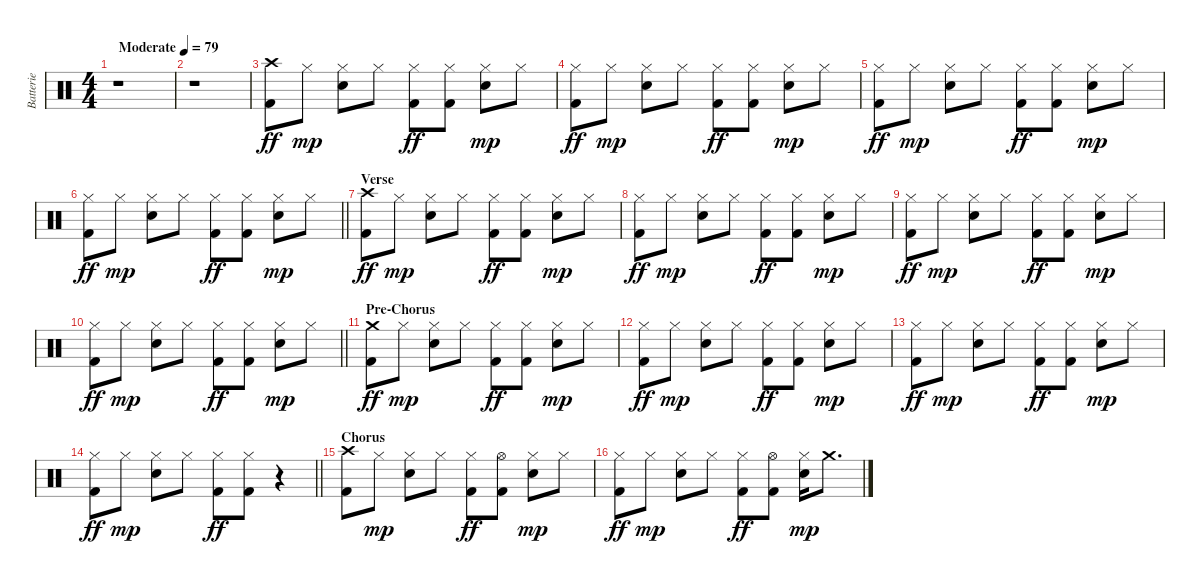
\track ("Batterie" "Batterie") {instrument percussion}
\staff {score}
\articulation defaults
\ts (4 4)
\tempo (79 "Moderate")
\clef neutral
\ks c
r.1{dy ff} |
r.1 |
("Crash high (hit)" "Kick (hit) 2").8 "Hi-Hat (closed)".8{dy mp} ("Hi-Hat (closed)" "Electric Snare (hit)").8 "Hi-Hat (closed)".8 ("Hi-Hat (closed)" "Kick (hit) 2").8{dy ff} ("Hi-Hat (closed)" "Kick (hit) 2").8 ("Hi-Hat (closed)" "Electric Snare (hit)").8{dy mp} "Hi-Hat (closed)".8 |
("Hi-Hat (closed)" "Kick (hit) 2").8{dy ff} "Hi-Hat (closed)".8{dy mp} ("Hi-Hat (closed)" "Electric Snare (hit)").8 "Hi-Hat (closed)".8 ("Hi-Hat (closed)" "Kick (hit) 2").8{dy ff} ("Hi-Hat (closed)" "Kick (hit) 2").8 ("Hi-Hat (closed)" "Electric Snare (hit)").8{dy mp} "Hi-Hat (closed)".8 |
("Hi-Hat (closed)" "Kick (hit) 2").8{dy ff} "Hi-Hat (closed)".8{dy mp} ("Hi-Hat (closed)" "Electric Snare (hit)").8 "Hi-Hat (closed)".8 ("Hi-Hat (closed)" "Kick (hit) 2").8{dy ff} ("Hi-Hat (closed)" "Kick (hit) 2").8 ("Hi-Hat (closed)" "Electric Snare (hit)").8{dy mp} "Hi-Hat (closed)".8 |
\barLineRight lightlight
("Hi-Hat (closed)" "Kick (hit) 2").8{dy ff} "Hi-Hat (closed)".8{dy mp} ("Hi-Hat (closed)" "Electric Snare (hit)").8 "Hi-Hat (closed)".8 ("Hi-Hat (closed)" "Kick (hit) 2").8{dy ff} ("Hi-Hat (closed)" "Kick (hit) 2").8 ("Hi-Hat (closed)" "Electric Snare (hit)").8{dy mp} "Hi-Hat (closed)".8 |
\section ("" "Verse")
("Crash high (hit)" "Kick (hit) 2").8{dy ff} "Hi-Hat (closed)".8{dy mp} ("Hi-Hat (closed)" "Electric Snare (hit)").8 "Hi-Hat (closed)".8 ("Hi-Hat (closed)" "Kick (hit) 2").8{dy ff} ("Hi-Hat (closed)" "Kick (hit) 2").8 ("Hi-Hat (closed)" "Electric Snare (hit)").8{dy mp} "Hi-Hat (closed)".8 |
("Hi-Hat (closed)" "Kick (hit) 2").8{dy ff} "Hi-Hat (closed)".8{dy mp} ("Hi-Hat (closed)" "Electric Snare (hit)").8 "Hi-Hat (closed)".8 ("Hi-Hat (closed)" "Kick (hit) 2").8{dy ff} ("Hi-Hat (closed)" "Kick (hit) 2").8 ("Hi-Hat (closed)" "Electric Snare (hit)").8{dy mp} "Hi-Hat (closed)".8 |
("Hi-Hat (closed)" "Kick (hit) 2").8{dy ff} "Hi-Hat (closed)".8{dy mp} ("Hi-Hat (closed)" "Electric Snare (hit)").8 "Hi-Hat (closed)".8 ("Hi-Hat (closed)" "Kick (hit) 2").8{dy ff} ("Hi-Hat (closed)" "Kick (hit) 2").8 ("Hi-Hat (closed)" "Electric Snare (hit)").8{dy mp} "Hi-Hat (closed)".8 |
\barLineRight lightlight
("Hi-Hat (closed)" "Kick (hit) 2").8{dy ff} "Hi-Hat (closed)".8{dy mp} ("Hi-Hat (closed)" "Electric Snare (hit)").8 "Hi-Hat (closed)".8 ("Hi-Hat (closed)" "Kick (hit) 2").8{dy ff} ("Hi-Hat (closed)" "Kick (hit) 2").8 ("Hi-Hat (closed)" "Electric Snare (hit)").8{dy mp} "Hi-Hat (closed)".8 |
\section ("" "Pre-Chorus")
("Crash medium (hit)" "Kick (hit) 2").8{dy ff} "Hi-Hat (closed)".8{dy mp} ("Hi-Hat (closed)" "Electric Snare (hit)").8 "Hi-Hat (closed)".8 ("Hi-Hat (closed)" "Kick (hit) 2").8{dy ff} ("Hi-Hat (closed)" "Kick (hit) 2").8 ("Hi-Hat (closed)" "Electric Snare (hit)").8{dy mp} "Hi-Hat (closed)".8 |
("Hi-Hat (closed)" "Kick (hit) 2").8{dy ff} "Hi-Hat (closed)".8{dy mp} ("Hi-Hat (closed)" "Electric Snare (hit)").8 "Hi-Hat (closed)".8 ("Hi-Hat (closed)" "Kick (hit) 2").8{dy ff} ("Hi-Hat (closed)" "Kick (hit) 2").8 ("Hi-Hat (closed)" "Electric Snare (hit)").8{dy mp} "Hi-Hat (closed)".8 |
("Hi-Hat (closed)" "Kick (hit) 2").8{dy ff} "Hi-Hat (closed)".8{dy mp} ("Hi-Hat (closed)" "Electric Snare (hit)").8 "Hi-Hat (closed)".8 ("Hi-Hat (closed)" "Kick (hit) 2").8{dy ff} ("Hi-Hat (closed)" "Kick (hit) 2").8 ("Hi-Hat (closed)" "Electric Snare (hit)").8{dy mp} "Hi-Hat (closed)".8 |
\barLineRight lightlight
("Hi-Hat (closed)" "Kick (hit) 2").8{dy ff} "Hi-Hat (closed)".8{dy mp} ("Hi-Hat (closed)" "Electric Snare (hit)").8 "Hi-Hat (closed)".8 ("Hi-Hat (closed)" "Kick (hit) 2").8{dy ff} ("Hi-Hat (closed)" "Kick (hit) 2").8 r.4 |
\section ("" "Chorus")
("Crash high (hit)" "Kick (hit) 2").8 "Hi-Hat (closed)".8{dy mp} ("Hi-Hat (closed)" "Electric Snare (hit)").8 "Hi-Hat (closed)".8 ("Hi-Hat (closed)" "Kick (hit) 2").8{dy ff} ("Hi-Hat (open)" "Kick (hit) 2").8 ("Hi-Hat (closed)" "Electric Snare (hit)").8{dy mp} "Hi-Hat (closed)".8 |
("Hi-Hat (closed)" "Kick (hit) 2").8{dy ff} "Hi-Hat (closed)".8{dy mp} ("Hi-Hat (closed)" "Electric Snare (hit)").8 "Hi-Hat (closed)".8 ("Hi-Hat (closed)" "Kick (hit) 2").8{dy ff} ("Hi-Hat (open)" "Kick (hit) 2").8 ("Hi-Hat (closed)" "Electric Snare (hit)").16{dy mp} "Crash medium (hit)".8{d}
